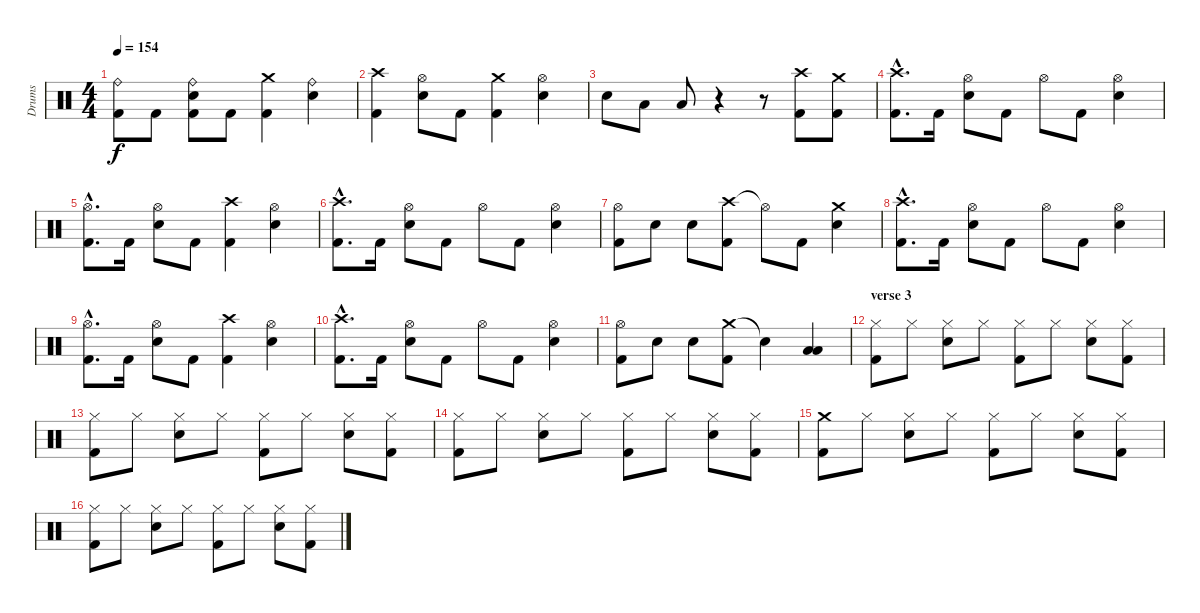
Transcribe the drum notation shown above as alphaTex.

\track ("Drums" "Drums") {instrument percussion}
\staff {score}
\articulation defaults
\ts (4 4)
\tempo 154
\clef neutral
\ks c
("Ride (bell)" "Kick (hit) 2").8{dy f} "Kick (hit) 2".8 ("Ride (bell)" "Electric Snare (hit)" "Kick (hit) 2").8 "Kick (hit) 2".8 ("Crash medium (hit)" "Kick (hit) 2").4 ("Ride (bell)" "Electric Snare (hit)").4 |
("Crash high (hit)" "Kick (hit) 2").4 ("Hi-Hat (open)" "Electric Snare (hit)").8 "Kick (hit) 2".8 ("Crash medium (hit)" "Kick (hit) 2").4 ("Hi-Hat (open)" "Electric Snare (hit)").4 |
"Electric Snare (hit)".8 "Low Tom (hit)".8 "Low Tom (hit)".8 r.4 r.8 ("Crash high (hit)" "Kick (hit) 2").8 ("Crash medium (hit)" "Kick (hit) 2").8 |
("Crash high (hit)"{hac} "Kick (hit) 2"{hac}).8{d} "Kick (hit) 2".16 ("Hi-Hat (open)" "Electric Snare (hit)").8 "Kick (hit) 2".8 "Hi-Hat (open)".8 "Kick (hit) 2".8 ("Hi-Hat (open)" "Electric Snare (hit)").4 |
("Hi-Hat (open)"{hac} "Kick (hit) 2"{hac}).8{d} "Kick (hit) 2".16 ("Hi-Hat (open)" "Electric Snare (hit)").8 "Kick (hit) 2".8 ("Crash high (hit)" "Kick (hit) 2").4 ("Hi-Hat (open)" "Electric Snare (hit)").4 |
("Crash high (hit)"{hac} "Kick (hit) 2"{hac}).8{d} "Kick (hit) 2".16 ("Hi-Hat (open)" "Electric Snare (hit)").8 "Kick (hit) 2".8 "Hi-Hat (open)".8 "Kick (hit) 2".8 ("Hi-Hat (open)" "Electric Snare (hit)").4 |
("Hi-Hat (open)" "Kick (hit) 2").8 "Electric Snare (hit)".8 "Electric Snare (hit)".8 ("Crash high (hit)" "Kick (hit) 2").8 "Hi-Hat (open)"{t}.8 "Kick (hit) 2".8 ("Crash medium (hit)" "Electric Snare (hit)").4 |
("Crash high (hit)"{hac} "Kick (hit) 2"{hac}).8{d} "Kick (hit) 2".16 ("Hi-Hat (open)" "Electric Snare (hit)").8 "Kick (hit) 2".8 "Hi-Hat (open)".8 "Kick (hit) 2".8 ("Hi-Hat (open)" "Electric Snare (hit)").4 |
("Hi-Hat (open)"{hac} "Kick (hit) 2"{hac}).8{d} "Kick (hit) 2".16 ("Hi-Hat (open)" "Electric Snare (hit)").8 "Kick (hit) 2".8 ("Crash high (hit)" "Kick (hit) 2").4 ("Hi-Hat (open)" "Electric Snare (hit)").4 |
("Crash high (hit)"{hac} "Kick (hit) 2"{hac}).8{d} "Kick (hit) 2".16 ("Hi-Hat (open)" "Electric Snare (hit)").8 "Kick (hit) 2".8 "Hi-Hat (open)".8 "Kick (hit) 2".8 ("Hi-Hat (open)" "Electric Snare (hit)").4 |
("Hi-Hat (open)" "Kick (hit) 2").8 "Electric Snare (hit)".8 "Electric Snare (hit)".8 ("Crash medium (hit)" "Kick (hit) 2").8 "Snare (hit)"{t}.4 ("Low Floor Tom (hit)" "Low Floor Tom (hit)").4 |
\section ("" "verse 3")
("Hi-Hat (closed)" "Kick (hit) 2").8 "Hi-Hat (closed)".8 ("Hi-Hat (closed)" "Electric Snare (hit)").8 "Hi-Hat (closed)".8 ("Hi-Hat (closed)" "Kick (hit) 2").8 "Hi-Hat (closed)".8 ("Hi-Hat (closed)" "Electric Snare (hit)").8 ("Hi-Hat (closed)" "Kick (hit) 2").8 |
("Hi-Hat (closed)" "Kick (hit) 2").8 "Hi-Hat (closed)".8 ("Hi-Hat (closed)" "Electric Snare (hit)").8 "Hi-Hat (closed)".8 ("Hi-Hat (closed)" "Kick (hit) 2").8 "Hi-Hat (closed)".8 ("Hi-Hat (closed)" "Electric Snare (hit)").8 ("Hi-Hat (closed)" "Kick (hit) 2").8 |
("Hi-Hat (closed)" "Kick (hit) 2").8 "Hi-Hat (closed)".8 ("Hi-Hat (closed)" "Electric Snare (hit)").8 "Hi-Hat (closed)".8 ("Hi-Hat (closed)" "Kick (hit) 2").8 "Hi-Hat (closed)".8 ("Hi-Hat (closed)" "Electric Snare (hit)").8 ("Hi-Hat (closed)" "Kick (hit) 2").8 |
("Crash medium (hit)" "Kick (hit) 2").8 "Hi-Hat (closed)".8 ("Hi-Hat (closed)" "Electric Snare (hit)").8 "Hi-Hat (closed)".8 ("Hi-Hat (closed)" "Kick (hit) 2").8 "Hi-Hat (closed)".8 ("Hi-Hat (closed)" "Electric Snare (hit)").8 ("Hi-Hat (closed)" "Kick (hit) 2").8 |
("Hi-Hat (closed)" "Kick (hit) 2").8 "Hi-Hat (closed)".8 ("Hi-Hat (closed)" "Electric Snare (hit)").8 "Hi-Hat (closed)".8 ("Hi-Hat (closed)" "Kick (hit) 2").8 "Hi-Hat (closed)".8 ("Hi-Hat (closed)" "Electric Snare (hit)").8 ("Hi-Hat (closed)" "Kick (hit) 2").8
